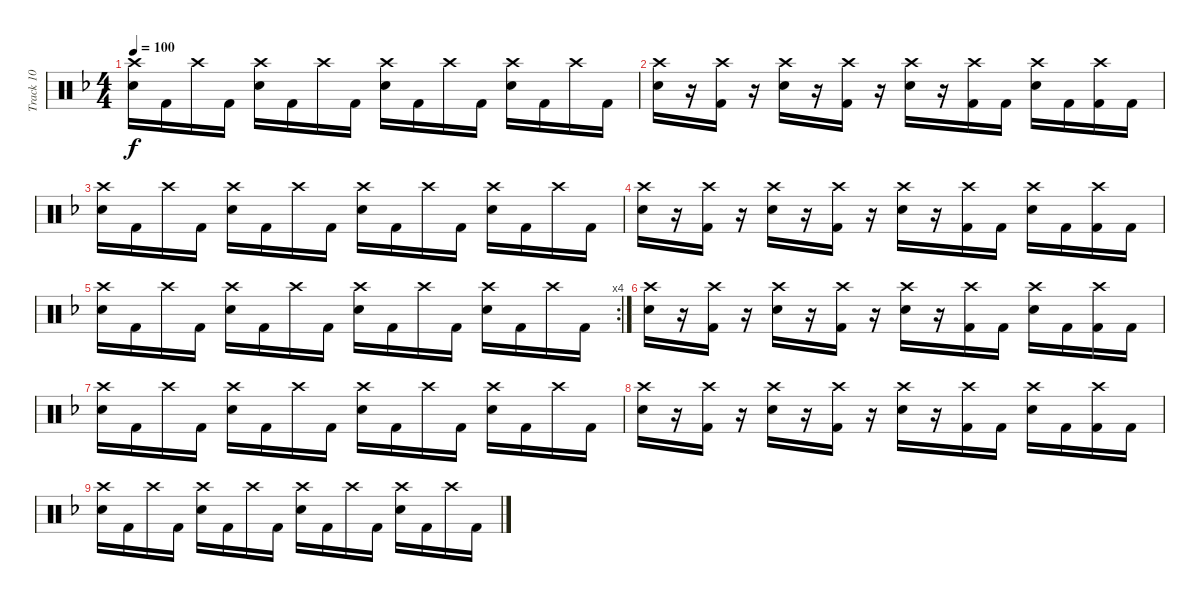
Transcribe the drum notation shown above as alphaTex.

\track ("Track 10" "Track 10") {instrument percussion}
\staff {score}
\articulation defaults
\ts (4 4)
\tempo 100
\clef neutral
\ks f
("Snare (hit) 2" "Crash high (hit)").16{dy f} "Kick (hit) 2".16 "Crash high (hit)".16 "Kick (hit) 2".16 ("Snare (hit) 2" "Crash high (hit)").16 "Kick (hit) 2".16 "Crash high (hit)".16 "Kick (hit) 2".16 ("Snare (hit) 2" "Crash high (hit)").16 "Kick (hit) 2".16 "Crash high (hit)".16 "Kick (hit) 2".16 ("Snare (hit) 2" "Crash high (hit)").16 "Kick (hit) 2".16 "Crash high (hit)".16 "Kick (hit) 2".16 |
("Snare (hit) 2" "Crash high (hit)").16 r.16 ("Kick (hit) 2" "Crash high (hit)").16 r.16 ("Snare (hit) 2" "Crash high (hit)").16 r.16 ("Kick (hit) 2" "Crash high (hit)").16 r.16 ("Snare (hit) 2" "Crash high (hit)").16 r.16 ("Kick (hit) 2" "Crash high (hit)").16 "Kick (hit) 2".16 ("Snare (hit) 2" "Crash high (hit)").16 "Kick (hit) 2".16 ("Kick (hit) 2" "Crash high (hit)").16 "Kick (hit) 2".16 |
("Snare (hit) 2" "Crash high (hit)").16 "Kick (hit) 2".16 "Crash high (hit)".16 "Kick (hit) 2".16 ("Snare (hit) 2" "Crash high (hit)").16 "Kick (hit) 2".16 "Crash high (hit)".16 "Kick (hit) 2".16 ("Snare (hit) 2" "Crash high (hit)").16 "Kick (hit) 2".16 "Crash high (hit)".16 "Kick (hit) 2".16 ("Snare (hit) 2" "Crash high (hit)").16 "Kick (hit) 2".16 "Crash high (hit)".16 "Kick (hit) 2".16 |
("Snare (hit) 2" "Crash high (hit)").16 r.16 ("Kick (hit) 2" "Crash high (hit)").16 r.16 ("Snare (hit) 2" "Crash high (hit)").16 r.16 ("Kick (hit) 2" "Crash high (hit)").16 r.16 ("Snare (hit) 2" "Crash high (hit)").16 r.16 ("Kick (hit) 2" "Crash high (hit)").16 "Kick (hit) 2".16 ("Snare (hit) 2" "Crash high (hit)").16 "Kick (hit) 2".16 ("Kick (hit) 2" "Crash high (hit)").16 "Kick (hit) 2".16 |
\rc 4
("Snare (hit) 2" "Crash high (hit)").16 "Kick (hit) 2".16 "Crash high (hit)".16 "Kick (hit) 2".16 ("Snare (hit) 2" "Crash high (hit)").16 "Kick (hit) 2".16 "Crash high (hit)".16 "Kick (hit) 2".16 ("Snare (hit) 2" "Crash high (hit)").16 "Kick (hit) 2".16 "Crash high (hit)".16 "Kick (hit) 2".16 ("Snare (hit) 2" "Crash high (hit)").16 "Kick (hit) 2".16 "Crash high (hit)".16 "Kick (hit) 2".16 |
("Snare (hit) 2" "Crash high (hit)").16 r.16 ("Kick (hit) 2" "Crash high (hit)").16 r.16 ("Snare (hit) 2" "Crash high (hit)").16 r.16 ("Kick (hit) 2" "Crash high (hit)").16 r.16 ("Snare (hit) 2" "Crash high (hit)").16 r.16 ("Kick (hit) 2" "Crash high (hit)").16 "Kick (hit) 2".16 ("Snare (hit) 2" "Crash high (hit)").16 "Kick (hit) 2".16 ("Kick (hit) 2" "Crash high (hit)").16 "Kick (hit) 2".16 |
("Snare (hit) 2" "Crash high (hit)").16 "Kick (hit) 2".16 "Crash high (hit)".16 "Kick (hit) 2".16 ("Snare (hit) 2" "Crash high (hit)").16 "Kick (hit) 2".16 "Crash high (hit)".16 "Kick (hit) 2".16 ("Snare (hit) 2" "Crash high (hit)").16 "Kick (hit) 2".16 "Crash high (hit)".16 "Kick (hit) 2".16 ("Snare (hit) 2" "Crash high (hit)").16 "Kick (hit) 2".16 "Crash high (hit)".16 "Kick (hit) 2".16 |
("Snare (hit) 2" "Crash high (hit)").16 r.16 ("Kick (hit) 2" "Crash high (hit)").16 r.16 ("Snare (hit) 2" "Crash high (hit)").16 r.16 ("Kick (hit) 2" "Crash high (hit)").16 r.16 ("Snare (hit) 2" "Crash high (hit)").16 r.16 ("Kick (hit) 2" "Crash high (hit)").16 "Kick (hit) 2".16 ("Snare (hit) 2" "Crash high (hit)").16 "Kick (hit) 2".16 ("Kick (hit) 2" "Crash high (hit)").16 "Kick (hit) 2".16 |
("Snare (hit) 2" "Crash high (hit)").16 "Kick (hit) 2".16 "Crash high (hit)".16 "Kick (hit) 2".16 ("Snare (hit) 2" "Crash high (hit)").16 "Kick (hit) 2".16 "Crash high (hit)".16 "Kick (hit) 2".16 ("Snare (hit) 2" "Crash high (hit)").16 "Kick (hit) 2".16 "Crash high (hit)".16 "Kick (hit) 2".16 ("Snare (hit) 2" "Crash high (hit)").16 "Kick (hit) 2".16 "Crash high (hit)".16 "Kick (hit) 2".16
